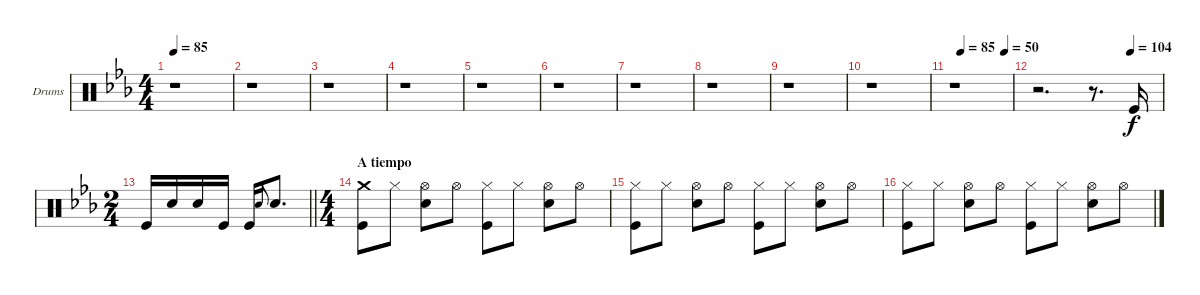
\bracketExtendMode groupsimilarinstruments
\firstSystemTrackNameOrientation horizontal
\otherSystemsTrackNameOrientation horizontal
\track ("Drumkit" "Drums") {instrument percussion}
\staff {score}
\articulation defaults
\ts (4 4)
\beaming (8 2 2 2 2)
\tempo 85
\clef neutral
\ks eb
r.1{dy f} |
r.1 |
r.1 |
r.1 |
r.1 |
r.1 |
r.1 |
r.1 |
r.1 |
r.1 |
\tempo (85 0.125)
\tempo (50 0.875)
r.1 |
\tempo (104 0.75)
r.2{d} r.8{d} "Kick (hit)".16 |
\ts (2 4)
\beaming (8 2 2)
\barLineRight lightlight "Kick (hit)".16 "Snare (hit) 2".16 "Snare (hit) 2".16 "Kick (hit)".16 "Kick (hit)".16 "Snare (hit) 2".8{gr onbeat} "Snare (hit) 2".8{d}
|
\ts (4 4)
\beaming (8 2 2 2 2)
\section ("" "A tiempo")
("Crash medium (hit)" "Kick (hit)").8 "Hi-Hat (closed)".8 ("Hi-Hat (open)" "Snare (hit) 2").8 "Hi-Hat (open)".8 ("Hi-Hat (closed)" "Kick (hit)").8 "Hi-Hat (closed)".8 ("Hi-Hat (open)" "Snare (hit) 2").8 "Hi-Hat (open)".8 |
("Hi-Hat (closed)" "Kick (hit)").8 "Hi-Hat (closed)".8 ("Hi-Hat (open)" "Snare (hit) 2").8 "Hi-Hat (open)".8 ("Hi-Hat (closed)" "Kick (hit)").8 "Hi-Hat (closed)".8 ("Hi-Hat (open)" "Snare (hit) 2").8 "Hi-Hat (open)".8 |
("Hi-Hat (closed)" "Kick (hit)").8 "Hi-Hat (closed)".8 ("Hi-Hat (open)" "Snare (hit) 2").8 "Hi-Hat (open)".8 ("Hi-Hat (closed)" "Kick (hit)").8 "Hi-Hat (closed)".8 ("Hi-Hat (open)" "Snare (hit) 2").8 "Hi-Hat (open)".8
